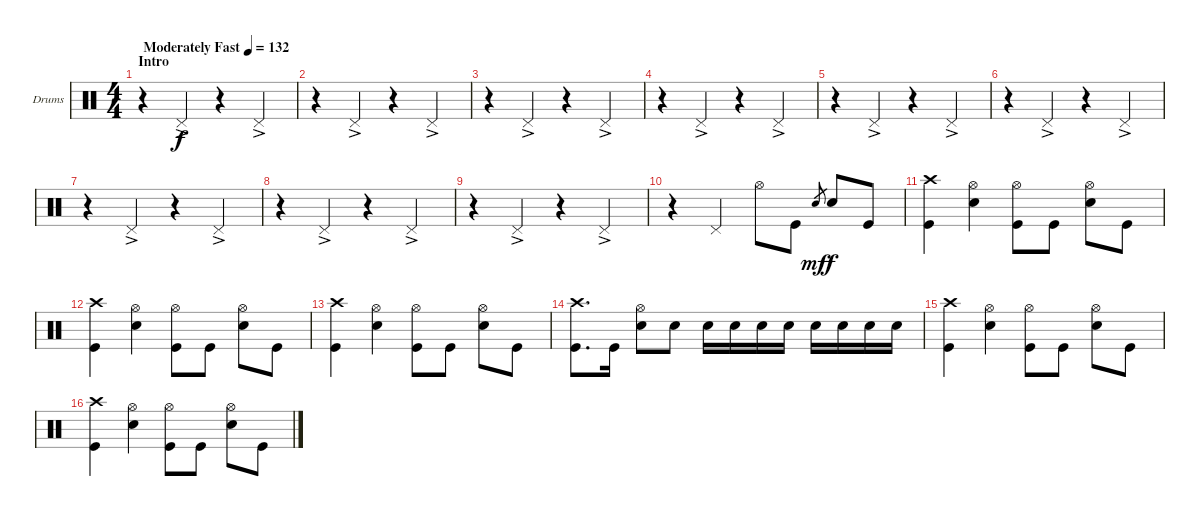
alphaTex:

\defaultSystemsLayout 4
\bracketExtendMode groupsimilarinstruments
\firstSystemTrackNameOrientation horizontal
\otherSystemsTrackNameOrientation horizontal
\track ("Drumkit" "Drums") {instrument percussion}
\staff {score}
\articulation defaults
\ts (4 4)
\section ("" "Intro")
\tempo (132 "Moderately Fast")
\clef neutral
\ks c
r.4{dy f} "Pedal Hi-Hat (hit)"{ac}.4 r.4 "Pedal Hi-Hat (hit)"{ac}.4 |
r.4 "Pedal Hi-Hat (hit)"{ac}.4 r.4 "Pedal Hi-Hat (hit)"{ac}.4 |
r.4 "Pedal Hi-Hat (hit)"{ac}.4 r.4 "Pedal Hi-Hat (hit)"{ac}.4 |
r.4 "Pedal Hi-Hat (hit)"{ac}.4 r.4 "Pedal Hi-Hat (hit)"{ac}.4 |
r.4 "Pedal Hi-Hat (hit)"{ac}.4 r.4 "Pedal Hi-Hat (hit)"{ac}.4 |
r.4 "Pedal Hi-Hat (hit)"{ac}.4 r.4 "Pedal Hi-Hat (hit)"{ac}.4 |
r.4 "Pedal Hi-Hat (hit)"{ac}.4 r.4 "Pedal Hi-Hat (hit)"{ac}.4 |
r.4 "Pedal Hi-Hat (hit)"{ac}.4 r.4 "Pedal Hi-Hat (hit)"{ac}.4 |
r.4 "Pedal Hi-Hat (hit)"{ac}.4 r.4 "Pedal Hi-Hat (hit)"{ac}.4 |
r.4 "Pedal Hi-Hat (hit)".4 "Hi-Hat (open)".8 "Kick (hit)".8 "Snare (hit) 2".8{gr dy mf} "Snare (hit) 2".8{dy f} "Kick (hit)".8 |
("Crash high (hit)" "Kick (hit)").4 ("Hi-Hat (open)" "Snare (hit) 2").4 ("Hi-Hat (open)" "Kick (hit)").8 "Kick (hit)".8 ("Hi-Hat (open)" "Snare (hit) 2").8 "Kick (hit)".8 |
("Crash high (hit)" "Kick (hit)").4 ("Hi-Hat (open)" "Snare (hit) 2").4 ("Hi-Hat (open)" "Kick (hit)").8 "Kick (hit)".8 ("Hi-Hat (open)" "Snare (hit) 2").8 "Kick (hit)".8 |
("Crash high (hit)" "Kick (hit)").4 ("Hi-Hat (open)" "Snare (hit) 2").4 ("Hi-Hat (open)" "Kick (hit)").8 "Kick (hit)".8 ("Hi-Hat (open)" "Snare (hit) 2").8 "Kick (hit)".8 |
("Crash high (hit)" "Kick (hit)").8{d} "Kick (hit)".16 ("Hi-Hat (open)" "Snare (hit) 2").8 "Snare (hit) 2".8 "Snare (hit) 2".16 "Snare (hit) 2".16 "Snare (hit) 2".16 "Snare (hit) 2".16 "Snare (hit) 2".16 "Snare (hit) 2".16 "Snare (hit) 2".16 "Snare (hit) 2".16 |
("Crash high (hit)" "Kick (hit)").4 ("Hi-Hat (open)" "Snare (hit) 2").4 ("Hi-Hat (open)" "Kick (hit)").8 "Kick (hit)".8 ("Hi-Hat (open)" "Snare (hit) 2").8 "Kick (hit)".8 |
("Crash high (hit)" "Kick (hit)").4 ("Hi-Hat (open)" "Snare (hit) 2").4 ("Hi-Hat (open)" "Kick (hit)").8 "Kick (hit)".8 ("Hi-Hat (open)" "Snare (hit) 2").8 "Kick (hit)".8
